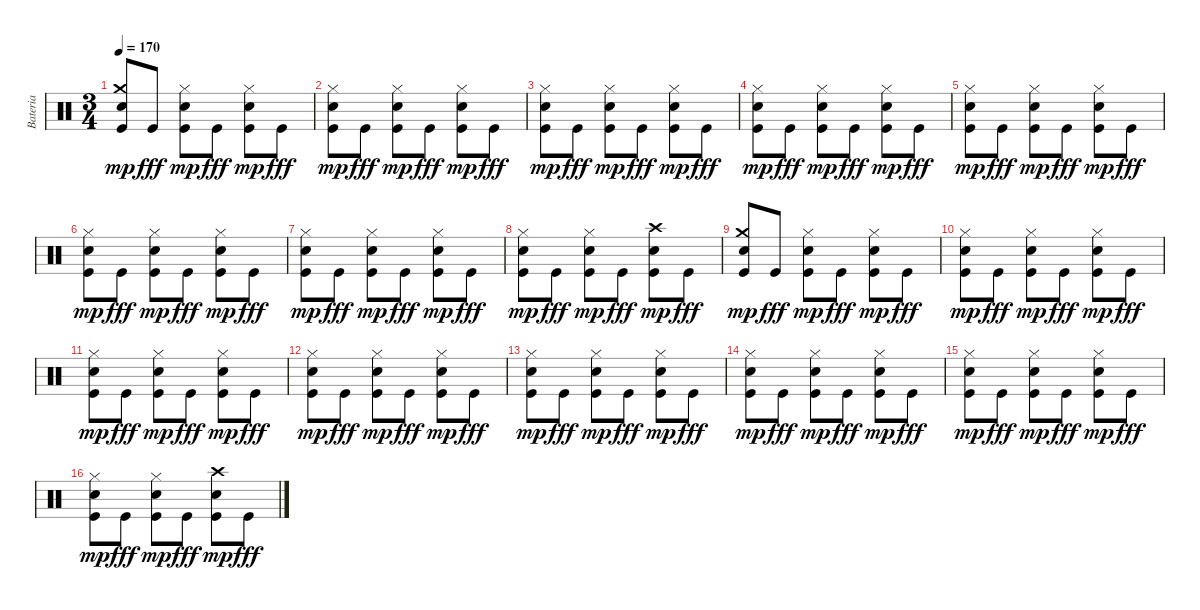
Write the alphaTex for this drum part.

\track ("Bateria" "Bateria") {instrument percussion}
\staff {score}
\articulation defaults
\ts (3 4)
\tempo 170
\clef neutral
\ks c
("Kick (hit)" "Crash medium (hit)" "Snare (hit) 2").8{dy mp} "Kick (hit)".8{dy fff} ("Kick (hit)" "Snare (hit) 2" "Hi-Hat (closed)").8{dy mp} "Kick (hit)".8{dy fff} ("Kick (hit)" "Hi-Hat (closed)" "Snare (hit) 2").8{dy mp} "Kick (hit)".8{dy fff} |
("Kick (hit)" "Hi-Hat (closed)" "Snare (hit) 2").8{dy mp} "Kick (hit)".8{dy fff} ("Kick (hit)" "Hi-Hat (closed)" "Snare (hit) 2").8{dy mp} "Kick (hit)".8{dy fff} ("Kick (hit)" "Hi-Hat (closed)" "Snare (hit) 2").8{dy mp} "Kick (hit)".8{dy fff} |
("Kick (hit)" "Hi-Hat (closed)" "Snare (hit) 2").8{dy mp} "Kick (hit)".8{dy fff} ("Kick (hit)" "Hi-Hat (closed)" "Snare (hit) 2").8{dy mp} "Kick (hit)".8{dy fff} ("Kick (hit)" "Hi-Hat (closed)" "Snare (hit) 2").8{dy mp} "Kick (hit)".8{dy fff} |
("Kick (hit)" "Hi-Hat (closed)" "Snare (hit) 2").8{dy mp} "Kick (hit)".8{dy fff} ("Kick (hit)" "Hi-Hat (closed)" "Snare (hit) 2").8{dy mp} "Kick (hit)".8{dy fff} ("Kick (hit)" "Hi-Hat (closed)" "Snare (hit) 2").8{dy mp} "Kick (hit)".8{dy fff} |
("Kick (hit)" "Hi-Hat (closed)" "Snare (hit) 2").8{dy mp} "Kick (hit)".8{dy fff} ("Kick (hit)" "Hi-Hat (closed)" "Snare (hit) 2").8{dy mp} "Kick (hit)".8{dy fff} ("Kick (hit)" "Hi-Hat (closed)" "Snare (hit) 2").8{dy mp} "Kick (hit)".8{dy fff} |
("Kick (hit)" "Hi-Hat (closed)" "Snare (hit) 2").8{dy mp} "Kick (hit)".8{dy fff} ("Kick (hit)" "Hi-Hat (closed)" "Snare (hit) 2").8{dy mp} "Kick (hit)".8{dy fff} ("Kick (hit)" "Hi-Hat (closed)" "Snare (hit) 2").8{dy mp} "Kick (hit)".8{dy fff} |
("Kick (hit)" "Hi-Hat (closed)" "Snare (hit) 2").8{dy mp} "Kick (hit)".8{dy fff} ("Kick (hit)" "Hi-Hat (closed)" "Snare (hit) 2").8{dy mp} "Kick (hit)".8{dy fff} ("Kick (hit)" "Hi-Hat (closed)" "Snare (hit) 2").8{dy mp} "Kick (hit)".8{dy fff} |
("Kick (hit)" "Hi-Hat (closed)" "Snare (hit) 2").8{dy mp} "Kick (hit)".8{dy fff} ("Kick (hit)" "Hi-Hat (closed)" "Snare (hit) 2").8{dy mp} "Kick (hit)".8{dy fff} ("Kick (hit)" "Crash high (hit)" "Snare (hit) 2").8{dy mp} "Kick (hit)".8{dy fff} |
("Kick (hit)" "Crash medium (hit)" "Snare (hit) 2").8{dy mp} "Kick (hit)".8{dy fff} ("Kick (hit)" "Snare (hit) 2" "Hi-Hat (closed)").8{dy mp} "Kick (hit)".8{dy fff} ("Kick (hit)" "Hi-Hat (closed)" "Snare (hit) 2").8{dy mp} "Kick (hit)".8{dy fff} |
("Kick (hit)" "Hi-Hat (closed)" "Snare (hit) 2").8{dy mp} "Kick (hit)".8{dy fff} ("Kick (hit)" "Hi-Hat (closed)" "Snare (hit) 2").8{dy mp} "Kick (hit)".8{dy fff} ("Kick (hit)" "Hi-Hat (closed)" "Snare (hit) 2").8{dy mp} "Kick (hit)".8{dy fff} |
("Kick (hit)" "Hi-Hat (closed)" "Snare (hit) 2").8{dy mp} "Kick (hit)".8{dy fff} ("Kick (hit)" "Hi-Hat (closed)" "Snare (hit) 2").8{dy mp} "Kick (hit)".8{dy fff} ("Kick (hit)" "Hi-Hat (closed)" "Snare (hit) 2").8{dy mp} "Kick (hit)".8{dy fff} |
("Kick (hit)" "Hi-Hat (closed)" "Snare (hit) 2").8{dy mp} "Kick (hit)".8{dy fff} ("Kick (hit)" "Hi-Hat (closed)" "Snare (hit) 2").8{dy mp} "Kick (hit)".8{dy fff} ("Kick (hit)" "Hi-Hat (closed)" "Snare (hit) 2").8{dy mp} "Kick (hit)".8{dy fff} |
("Kick (hit)" "Hi-Hat (closed)" "Snare (hit) 2").8{dy mp} "Kick (hit)".8{dy fff} ("Kick (hit)" "Hi-Hat (closed)" "Snare (hit) 2").8{dy mp} "Kick (hit)".8{dy fff} ("Kick (hit)" "Hi-Hat (closed)" "Snare (hit) 2").8{dy mp} "Kick (hit)".8{dy fff} |
("Kick (hit)" "Hi-Hat (closed)" "Snare (hit) 2").8{dy mp} "Kick (hit)".8{dy fff} ("Kick (hit)" "Hi-Hat (closed)" "Snare (hit) 2").8{dy mp} "Kick (hit)".8{dy fff} ("Kick (hit)" "Hi-Hat (closed)" "Snare (hit) 2").8{dy mp} "Kick (hit)".8{dy fff} |
("Kick (hit)" "Hi-Hat (closed)" "Snare (hit) 2").8{dy mp} "Kick (hit)".8{dy fff} ("Kick (hit)" "Hi-Hat (closed)" "Snare (hit) 2").8{dy mp} "Kick (hit)".8{dy fff} ("Kick (hit)" "Hi-Hat (closed)" "Snare (hit) 2").8{dy mp} "Kick (hit)".8{dy fff} |
("Kick (hit)" "Hi-Hat (closed)" "Snare (hit) 2").8{dy mp} "Kick (hit)".8{dy fff} ("Kick (hit)" "Hi-Hat (closed)" "Snare (hit) 2").8{dy mp} "Kick (hit)".8{dy fff} ("Kick (hit)" "Crash high (hit)" "Snare (hit) 2").8{dy mp} "Kick (hit)".8{dy fff}
